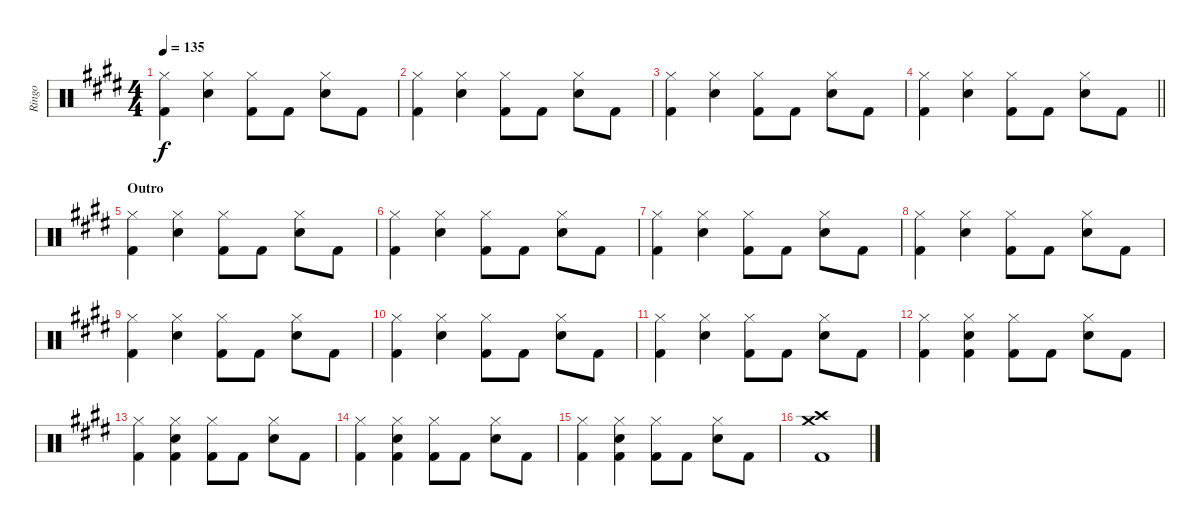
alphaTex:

\track ("Ringo" "Ringo") {instrument percussion}
\staff {score}
\articulation defaults
\ts (4 4)
\tempo 135
\clef neutral
\ks e
("Hi-Hat (closed)" "Kick (hit) 2").4{dy f} ("Hi-Hat (closed)" "Snare (hit) 2").4 ("Hi-Hat (closed)" "Kick (hit) 2").8 "Kick (hit) 2".8 ("Hi-Hat (closed)" "Snare (hit) 2").8 "Kick (hit) 2".8 |
("Hi-Hat (closed)" "Kick (hit) 2").4 ("Hi-Hat (closed)" "Snare (hit) 2").4 ("Hi-Hat (closed)" "Kick (hit) 2").8 "Kick (hit) 2".8 ("Hi-Hat (closed)" "Snare (hit) 2").8 "Kick (hit) 2".8 |
("Hi-Hat (closed)" "Kick (hit) 2").4 ("Hi-Hat (closed)" "Snare (hit) 2").4 ("Hi-Hat (closed)" "Kick (hit) 2").8 "Kick (hit) 2".8 ("Hi-Hat (closed)" "Snare (hit) 2").8 "Kick (hit) 2".8 |
\barLineRight lightlight
("Hi-Hat (closed)" "Kick (hit) 2").4 ("Hi-Hat (closed)" "Snare (hit) 2").4 ("Hi-Hat (closed)" "Kick (hit) 2").8 "Kick (hit) 2".8 ("Hi-Hat (closed)" "Snare (hit) 2").8 "Kick (hit) 2".8 |
\section ("" "Outro")
("Hi-Hat (closed)" "Kick (hit) 2").4 ("Hi-Hat (closed)" "Snare (hit) 2").4 ("Hi-Hat (closed)" "Kick (hit) 2").8 "Kick (hit) 2".8 ("Hi-Hat (closed)" "Snare (hit) 2").8 "Kick (hit) 2".8 |
("Hi-Hat (closed)" "Kick (hit) 2").4 ("Hi-Hat (closed)" "Snare (hit) 2").4 ("Hi-Hat (closed)" "Kick (hit) 2").8 "Kick (hit) 2".8 ("Hi-Hat (closed)" "Snare (hit) 2").8 "Kick (hit) 2".8 |
("Hi-Hat (closed)" "Kick (hit) 2").4 ("Hi-Hat (closed)" "Snare (hit) 2").4 ("Hi-Hat (closed)" "Kick (hit) 2").8 "Kick (hit) 2".8 ("Hi-Hat (closed)" "Snare (hit) 2").8 "Kick (hit) 2".8 |
("Hi-Hat (closed)" "Kick (hit) 2").4 ("Hi-Hat (closed)" "Snare (hit) 2").4 ("Hi-Hat (closed)" "Kick (hit) 2").8 "Kick (hit) 2".8 ("Hi-Hat (closed)" "Snare (hit) 2").8 "Kick (hit) 2".8 |
("Hi-Hat (closed)" "Kick (hit) 2").4 ("Hi-Hat (closed)" "Snare (hit) 2").4 ("Hi-Hat (closed)" "Kick (hit) 2").8 "Kick (hit) 2".8 ("Hi-Hat (closed)" "Snare (hit) 2").8 "Kick (hit) 2".8 |
("Hi-Hat (closed)" "Kick (hit) 2").4 ("Hi-Hat (closed)" "Snare (hit) 2").4 ("Hi-Hat (closed)" "Kick (hit) 2").8 "Kick (hit) 2".8 ("Hi-Hat (closed)" "Snare (hit) 2").8 "Kick (hit) 2".8 |
("Hi-Hat (closed)" "Kick (hit) 2").4 ("Hi-Hat (closed)" "Snare (hit) 2").4 ("Hi-Hat (closed)" "Kick (hit) 2").8 "Kick (hit) 2".8 ("Hi-Hat (closed)" "Snare (hit) 2").8 "Kick (hit) 2".8 |
("Hi-Hat (closed)" "Kick (hit) 2").4 ("Hi-Hat (closed)" "Snare (hit) 2" "Kick (hit) 2").4 ("Hi-Hat (closed)" "Kick (hit) 2").8 "Kick (hit) 2".8 ("Hi-Hat (closed)" "Snare (hit) 2").8 "Kick (hit) 2".8 |
("Hi-Hat (closed)" "Kick (hit) 2").4 ("Hi-Hat (closed)" "Snare (hit) 2" "Kick (hit) 2").4 ("Hi-Hat (closed)" "Kick (hit) 2").8 "Kick (hit) 2".8 ("Hi-Hat (closed)" "Snare (hit) 2").8 "Kick (hit) 2".8 |
("Hi-Hat (closed)" "Kick (hit) 2").4 ("Hi-Hat (closed)" "Snare (hit) 2" "Kick (hit) 2").4 ("Hi-Hat (closed)" "Kick (hit) 2").8 "Kick (hit) 2".8 ("Hi-Hat (closed)" "Snare (hit) 2").8 "Kick (hit) 2".8 |
("Hi-Hat (closed)" "Kick (hit) 2").4 ("Hi-Hat (closed)" "Snare (hit) 2" "Kick (hit) 2").4 ("Hi-Hat (closed)" "Kick (hit) 2").8 "Kick (hit) 2".8 ("Hi-Hat (closed)" "Snare (hit) 2").8 "Kick (hit) 2".8 |
("Crash medium (hit)" "Crash high (hit)" "Kick (hit) 2").1
